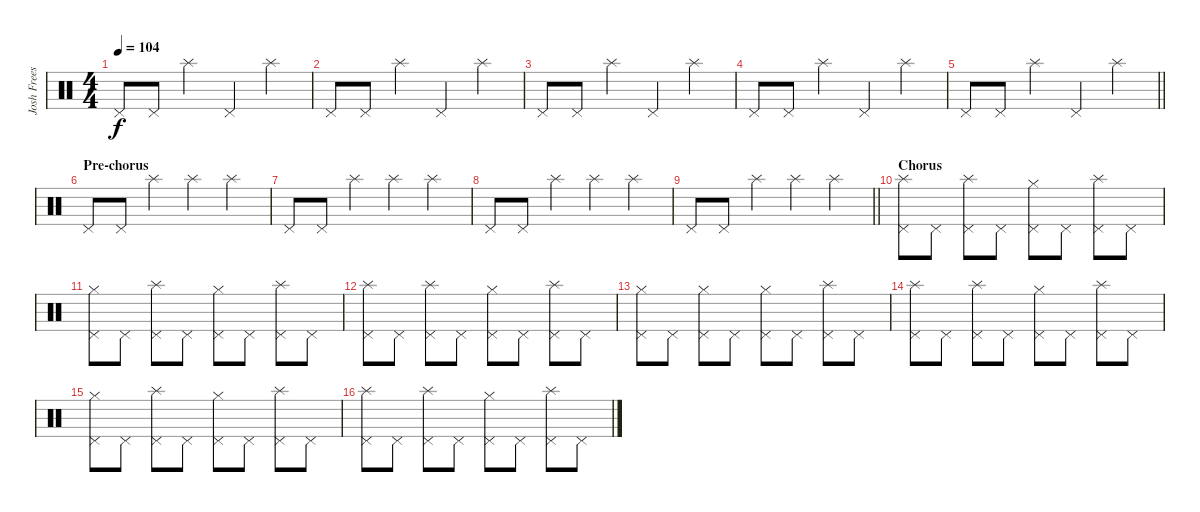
\track ("Josh Freese (Studio Drummer)" "Josh Frees") {instrument percussion}
\staff {score}
\articulation defaults
\ts (4 4)
\tempo 104
\clef neutral
\ks c "Pedal Hi-Hat (hit)".8{dy f} "Pedal Hi-Hat (hit)".8 "Splash (hit)".4 "Pedal Hi-Hat (hit)".4 "Splash (hit)".4
|
"Pedal Hi-Hat (hit)".8 "Pedal Hi-Hat (hit)".8 "Splash (hit)".4 "Pedal Hi-Hat (hit)".4 "Splash (hit)".4 |
"Pedal Hi-Hat (hit)".8 "Pedal Hi-Hat (hit)".8 "Splash (hit)".4 "Pedal Hi-Hat (hit)".4 "Splash (hit)".4 |
"Pedal Hi-Hat (hit)".8 "Pedal Hi-Hat (hit)".8 "Splash (hit)".4 "Pedal Hi-Hat (hit)".4 "Splash (hit)".4 |
\barLineRight lightlight "Pedal Hi-Hat (hit)".8 "Pedal Hi-Hat (hit)".8 "Splash (hit)".4 "Pedal Hi-Hat (hit)".4 "Splash (hit)".4
|
\section ("" "Pre-chorus")
"Pedal Hi-Hat (hit)".8 "Pedal Hi-Hat (hit)".8 "Splash (hit)".4 "Splash (hit)".4 "Splash (hit)".4 |
"Pedal Hi-Hat (hit)".8 "Pedal Hi-Hat (hit)".8 "Splash (hit)".4 "Splash (hit)".4 "Splash (hit)".4 |
"Pedal Hi-Hat (hit)".8 "Pedal Hi-Hat (hit)".8 "Splash (hit)".4 "Splash (hit)".4 "Splash (hit)".4 |
\barLineRight lightlight "Pedal Hi-Hat (hit)".8 "Pedal Hi-Hat (hit)".8 "Splash (hit)".4 "Splash (hit)".4 "Splash (hit)".4
|
\section ("" "Chorus")
("Splash (hit)" "Pedal Hi-Hat (hit)").8 "Pedal Hi-Hat (hit)".8 ("Splash (hit)" "Pedal Hi-Hat (hit)").8 "Pedal Hi-Hat (hit)".8 ("Hi-Hat (closed)" "Pedal Hi-Hat (hit)").8 "Pedal Hi-Hat (hit)".8 ("Splash (hit)" "Pedal Hi-Hat (hit)").8 "Pedal Hi-Hat (hit)".8 |
("Hi-Hat (closed)" "Pedal Hi-Hat (hit)").8 "Pedal Hi-Hat (hit)".8 ("Splash (hit)" "Pedal Hi-Hat (hit)").8 "Pedal Hi-Hat (hit)".8 ("Hi-Hat (closed)" "Pedal Hi-Hat (hit)").8 "Pedal Hi-Hat (hit)".8 ("Splash (hit)" "Pedal Hi-Hat (hit)").8 "Pedal Hi-Hat (hit)".8 |
("Splash (hit)" "Pedal Hi-Hat (hit)").8 "Pedal Hi-Hat (hit)".8 ("Splash (hit)" "Pedal Hi-Hat (hit)").8 "Pedal Hi-Hat (hit)".8 ("Hi-Hat (closed)" "Pedal Hi-Hat (hit)").8 "Pedal Hi-Hat (hit)".8 ("Splash (hit)" "Pedal Hi-Hat (hit)").8 "Pedal Hi-Hat (hit)".8 |
("Hi-Hat (closed)" "Pedal Hi-Hat (hit)").8 "Pedal Hi-Hat (hit)".8 ("Hi-Hat (closed)" "Pedal Hi-Hat (hit)").8 "Pedal Hi-Hat (hit)".8 ("Hi-Hat (closed)" "Pedal Hi-Hat (hit)").8 "Pedal Hi-Hat (hit)".8 ("Splash (hit)" "Pedal Hi-Hat (hit)").8 "Pedal Hi-Hat (hit)".8 |
("Splash (hit)" "Pedal Hi-Hat (hit)").8 "Pedal Hi-Hat (hit)".8 ("Splash (hit)" "Pedal Hi-Hat (hit)").8 "Pedal Hi-Hat (hit)".8 ("Hi-Hat (closed)" "Pedal Hi-Hat (hit)").8 "Pedal Hi-Hat (hit)".8 ("Splash (hit)" "Pedal Hi-Hat (hit)").8 "Pedal Hi-Hat (hit)".8 |
("Hi-Hat (closed)" "Pedal Hi-Hat (hit)").8 "Pedal Hi-Hat (hit)".8 ("Splash (hit)" "Pedal Hi-Hat (hit)").8 "Pedal Hi-Hat (hit)".8 ("Hi-Hat (closed)" "Pedal Hi-Hat (hit)").8 "Pedal Hi-Hat (hit)".8 ("Splash (hit)" "Pedal Hi-Hat (hit)").8 "Pedal Hi-Hat (hit)".8 |
("Splash (hit)" "Pedal Hi-Hat (hit)").8 "Pedal Hi-Hat (hit)".8 ("Splash (hit)" "Pedal Hi-Hat (hit)").8 "Pedal Hi-Hat (hit)".8 ("Hi-Hat (closed)" "Pedal Hi-Hat (hit)").8 "Pedal Hi-Hat (hit)".8 ("Splash (hit)" "Pedal Hi-Hat (hit)").8 "Pedal Hi-Hat (hit)".8
